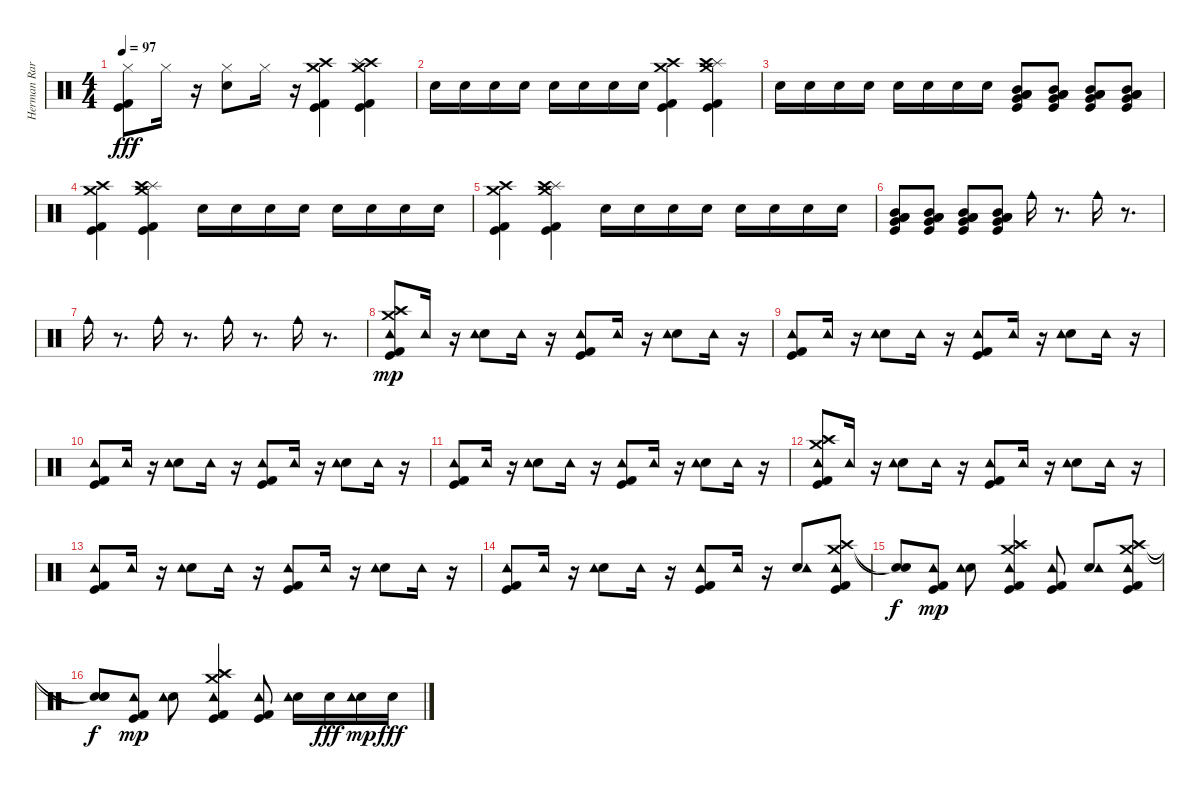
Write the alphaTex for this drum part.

\track ("Herman Rarebel" "Herman Rar") {instrument percussion}
\staff {score}
\articulation defaults
\ts (4 4)
\tempo 97
\clef neutral
\ks c
("Hi-Hat (closed)" "Kick (hit)" "Kick (hit) 2").8{dy fff} "Hi-Hat (closed)".16 r.16 ("Hi-Hat (closed)" "Snare (hit) 2").8 "Hi-Hat (closed)".16 r.16 ("Kick (hit) 2" "Kick (hit)" "Crash high (hit)" "Crash medium (hit)").4 ("Kick (hit) 2" "Kick (hit)" "Crash high (hit)" "Crash medium (hit)" "Splash (hit)").4 |
"Snare (hit) 2".16 "Snare (hit) 2".16 "Snare (hit) 2".16 "Snare (hit) 2".16 "Snare (hit) 2".16 "Snare (hit) 2".16 "Snare (hit) 2".16 "Snare (hit) 2".16 ("Kick (hit) 2" "Kick (hit)" "Crash medium (hit)" "Crash high (hit)").4 ("Kick (hit)" "Kick (hit) 2" "Crash medium (hit)" "Splash (hit)" "Crash high (hit)").4 |
"Snare (hit) 2".16 "Snare (hit) 2".16 "Snare (hit) 2".16 "Snare (hit) 2".16 "Snare (hit) 2".16 "Snare (hit) 2".16 "Snare (hit) 2".16 "Snare (hit) 2".16 ("Mid Tom (hit)" "Low Tom (hit)" "Very Low Tom (hit)" "Low Floor Tom (hit)" "Kick (hit)").8 ("Mid Tom (hit)" "Low Tom (hit)" "Very Low Tom (hit)" "Low Floor Tom (hit)" "Kick (hit)").8 ("Mid Tom (hit)" "Low Tom (hit)" "Very Low Tom (hit)" "Low Floor Tom (hit)" "Kick (hit)").8 ("Mid Tom (hit)" "Low Tom (hit)" "Very Low Tom (hit)" "Low Floor Tom (hit)" "Kick (hit)").8 |
("Crash medium (hit)" "Crash high (hit)" "Kick (hit) 2" "Kick (hit)").4 ("Crash medium (hit)" "Splash (hit)" "Crash high (hit)" "Kick (hit)" "Kick (hit) 2").4 "Snare (hit) 2".16 "Snare (hit) 2".16 "Snare (hit) 2".16 "Snare (hit) 2".16 "Snare (hit) 2".16 "Snare (hit) 2".16 "Snare (hit) 2".16 "Snare (hit) 2".16 |
("Kick (hit) 2" "Kick (hit)" "Crash medium (hit)" "Crash high (hit)").4 ("Kick (hit)" "Kick (hit) 2" "Crash medium (hit)" "Splash (hit)" "Crash high (hit)").4 "Snare (hit) 2".16 "Snare (hit) 2".16 "Snare (hit) 2".16 "Snare (hit) 2".16 "Snare (hit) 2".16 "Snare (hit) 2".16 "Snare (hit) 2".16 "Snare (hit) 2".16 |
("Mid Tom (hit)" "Low Tom (hit)" "Very Low Tom (hit)" "Low Floor Tom (hit)" "Kick (hit)").8 ("Mid Tom (hit)" "Low Tom (hit)" "Very Low Tom (hit)" "Low Floor Tom (hit)" "Kick (hit)").8 ("Mid Tom (hit)" "Low Tom (hit)" "Very Low Tom (hit)" "Low Floor Tom (hit)" "Kick (hit)").8 ("Mid Tom (hit)" "Low Tom (hit)" "Very Low Tom (hit)" "Low Floor Tom (hit)" "Kick (hit)").8 "Cowbell medium (hit)".16 r.8{d} "Cowbell medium (hit)".16 r.8{d} |
"Cowbell medium (hit)".16 r.8{d} "Cowbell medium (hit)".16 r.8{d} "Cowbell medium (hit)".16 r.8{d} "Cowbell medium (hit)".16 r.8{d} |
("Kick (hit)" "Kick (hit) 2" "Crash medium (hit)" "Splash (hit)" "Crash high (hit)" "Tambourine (hit)").8{dy mp} "Tambourine (hit)".16 r.16 ("Snare (hit) 2" "Tambourine (hit)").8 "Tambourine (hit)".16 r.16 ("Kick (hit) 2" "Kick (hit)" "Tambourine (hit)").8 "Tambourine (hit)".16 r.16 ("Snare (hit) 2" "Tambourine (hit)").8 "Tambourine (hit)".16 r.16 |
("Kick (hit) 2" "Kick (hit)" "Tambourine (hit)").8 "Tambourine (hit)".16 r.16 ("Snare (hit) 2" "Tambourine (hit)").8 "Tambourine (hit)".16 r.16 ("Kick (hit) 2" "Kick (hit)" "Tambourine (hit)").8 "Tambourine (hit)".16 r.16 ("Snare (hit) 2" "Tambourine (hit)").8 "Tambourine (hit)".16 r.16 |
("Kick (hit) 2" "Kick (hit)" "Tambourine (hit)").8 "Tambourine (hit)".16 r.16 ("Snare (hit) 2" "Tambourine (hit)").8 "Tambourine (hit)".16 r.16 ("Kick (hit) 2" "Kick (hit)" "Tambourine (hit)").8 "Tambourine (hit)".16 r.16 ("Snare (hit) 2" "Tambourine (hit)").8 "Tambourine (hit)".16 r.16 |
("Kick (hit) 2" "Kick (hit)" "Tambourine (hit)").8 "Tambourine (hit)".16 r.16 ("Snare (hit) 2" "Tambourine (hit)").8 "Tambourine (hit)".16 r.16 ("Kick (hit) 2" "Kick (hit)" "Tambourine (hit)").8 "Tambourine (hit)".16 r.16 ("Snare (hit) 2" "Tambourine (hit)").8 "Tambourine (hit)".16 r.16 |
("Crash high (hit)" "Splash (hit)" "Crash medium (hit)" "Kick (hit) 2" "Kick (hit)" "Tambourine (hit)").8 "Tambourine (hit)".16 r.16 ("Snare (hit) 2" "Tambourine (hit)").8 "Tambourine (hit)".16 r.16 ("Kick (hit) 2" "Kick (hit)" "Tambourine (hit)").8 "Tambourine (hit)".16 r.16 ("Snare (hit) 2" "Tambourine (hit)").8 "Tambourine (hit)".16 r.16 |
("Kick (hit)" "Kick (hit) 2" "Tambourine (hit)").8 "Tambourine (hit)".16 r.16 ("Snare (hit) 2" "Tambourine (hit)").8 "Tambourine (hit)".16 r.16 ("Kick (hit) 2" "Kick (hit)" "Tambourine (hit)").8 "Tambourine (hit)".16 r.16 ("Snare (hit) 2" "Tambourine (hit)").8 "Tambourine (hit)".16 r.16 |
("Kick (hit)" "Kick (hit) 2" "Tambourine (hit)").8 "Tambourine (hit)".16 r.16 ("Snare (hit) 2" "Tambourine (hit)").8 "Tambourine (hit)".16 r.16 ("Kick (hit) 2" "Kick (hit)" "Tambourine (hit)").8 "Tambourine (hit)".16 r.16 ("Snare (hit) 2" "Tambourine (hit)").8 ("Crash high (hit)" "Crash medium (hit)" "Kick (hit)" "Kick (hit) 2" "Tambourine (hit)").8 |
("Snare (hit)"{t} "Snare (hit)"{t}).8{dy f} ("Kick (hit) 2" "Kick (hit)" "Tambourine (hit)").8{dy mp} ("Snare (hit) 2" "Tambourine (hit)").8 ("Crash medium (hit)" "Splash (hit)" "Crash high (hit)" "Kick (hit) 2" "Kick (hit)" "Tambourine (hit)").4 ("Kick (hit) 2" "Kick (hit)" "Tambourine (hit)").8 ("Snare (hit) 2" "Tambourine (hit)").8 ("Crash medium (hit)" "Splash (hit)" "Crash high (hit)" "Kick (hit) 2" "Kick (hit)" "Tambourine (hit)").8 |
("Snare (hit)"{t} "Snare (hit)"{t} "Snare (hit)"{t}).8{dy f} ("Kick (hit) 2" "Kick (hit)" "Tambourine (hit)").8{dy mp} ("Snare (hit) 2" "Tambourine (hit)").8 ("Crash high (hit)" "Splash (hit)" "Crash medium (hit)" "Kick (hit) 2" "Kick (hit)" "Tambourine (hit)").4 ("Kick (hit) 2" "Kick (hit)" "Tambourine (hit)").8 ("Snare (hit) 2" "Tambourine (hit)").16 "Snare (hit) 2".16{dy fff} ("Snare (hit) 2" "Tambourine (hit)").16{dy mp} "Snare (hit) 2".16{dy fff}
